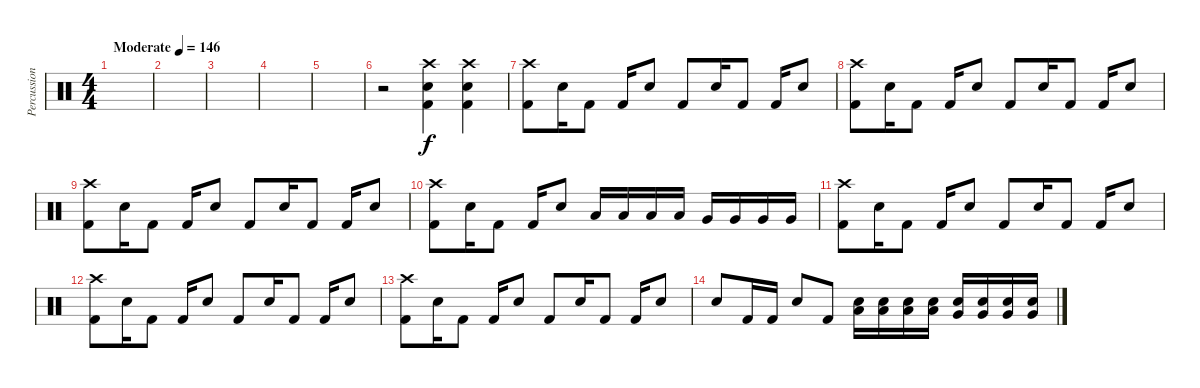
\track ("Percussion" "Percussion") {instrument percussion}
\staff {score}
\articulation defaults
\ts (4 4)
\tempo (146 "Moderate")
\clef neutral
\ks c
|
|
|
|
|
r.2 ("Crash high (hit)" "Snare (hit) 2" "Kick (hit) 2").4 ("Crash high (hit)" "Snare (hit) 2" "Kick (hit) 2").4 |
("Crash high (hit)" "Kick (hit) 2").8 "Snare (hit) 2".16 "Kick (hit) 2".8 "Kick (hit) 2".16 "Snare (hit) 2".8 "Kick (hit) 2".8 "Snare (hit) 2".16 "Kick (hit) 2".8 "Kick (hit) 2".16 "Snare (hit) 2".8 |
("Crash high (hit)" "Kick (hit) 2").8 "Snare (hit) 2".16 "Kick (hit) 2".8 "Kick (hit) 2".16 "Snare (hit) 2".8 "Kick (hit) 2".8 "Snare (hit) 2".16 "Kick (hit) 2".8 "Kick (hit) 2".16 "Snare (hit) 2".8 |
("Crash high (hit)" "Kick (hit) 2").8 "Snare (hit) 2".16 "Kick (hit) 2".8 "Kick (hit) 2".16 "Snare (hit) 2".8 "Kick (hit) 2".8 "Snare (hit) 2".16 "Kick (hit) 2".8 "Kick (hit) 2".16 "Snare (hit) 2".8 |
("Crash high (hit)" "Kick (hit) 2").8 "Snare (hit) 2".16 "Kick (hit) 2".8 "Kick (hit) 2".16 "Snare (hit) 2".8 "Low Tom (hit)".16 "Low Tom (hit)".16 "Low Tom (hit)".16 "Low Tom (hit)".16 "Very Low Tom (hit)".16 "Very Low Tom (hit)".16 "Very Low Tom (hit)".16 "Very Low Tom (hit)".16 |
("Crash high (hit)" "Kick (hit) 2").8 "Snare (hit) 2".16 "Kick (hit) 2".8 "Kick (hit) 2".16 "Snare (hit) 2".8 "Kick (hit) 2".8 "Snare (hit) 2".16 "Kick (hit) 2".8 "Kick (hit) 2".16 "Snare (hit) 2".8 |
("Crash high (hit)" "Kick (hit) 2").8 "Snare (hit) 2".16 "Kick (hit) 2".8 "Kick (hit) 2".16 "Snare (hit) 2".8 "Kick (hit) 2".8 "Snare (hit) 2".16 "Kick (hit) 2".8 "Kick (hit) 2".16 "Snare (hit) 2".8 |
("Crash high (hit)" "Kick (hit) 2").8 "Snare (hit) 2".16 "Kick (hit) 2".8 "Kick (hit) 2".16 "Snare (hit) 2".8 "Kick (hit) 2".8 "Snare (hit) 2".16 "Kick (hit) 2".8 "Kick (hit) 2".16 "Snare (hit) 2".8 |
"Snare (hit) 2".8 "Kick (hit) 2".16 "Kick (hit) 2".16 "Snare (hit) 2".8 "Kick (hit) 2".8 ("Snare (hit) 2" "Low Tom (hit)").16 ("Snare (hit) 2" "Low Tom (hit)").16 ("Snare (hit) 2" "Low Tom (hit)").16 ("Snare (hit) 2" "Low Tom (hit)").16 ("Electric Snare (hit)" "Very Low Tom (hit)").16 ("Electric Snare (hit)" "Very Low Tom (hit)").16 ("Electric Snare (hit)" "Very Low Tom (hit)").16 ("Electric Snare (hit)" "Very Low Tom (hit)").16
